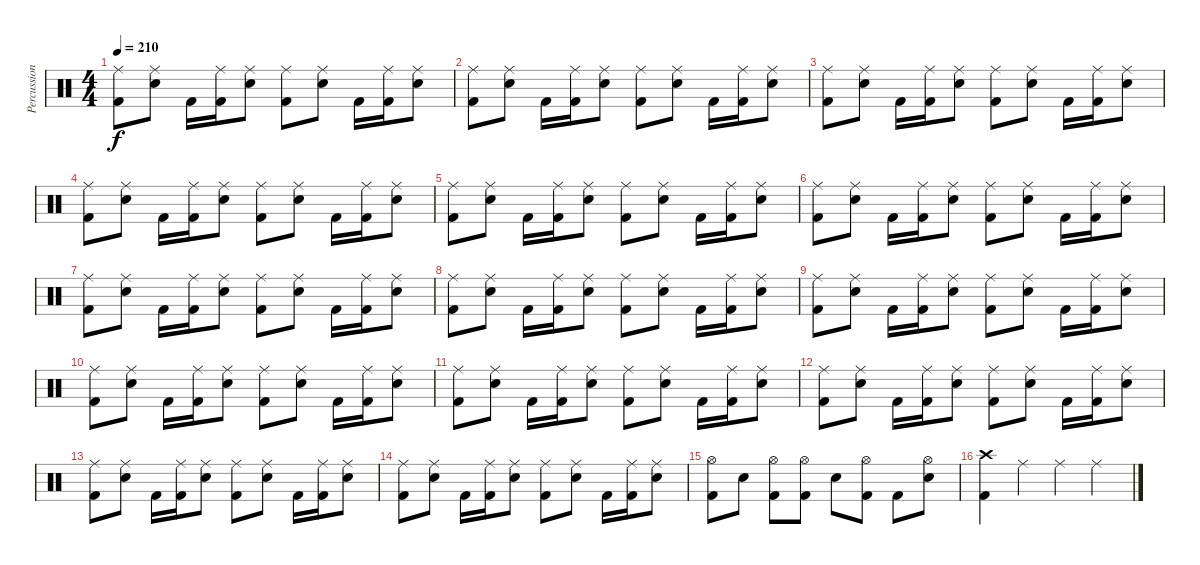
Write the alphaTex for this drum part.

\track ("Percussions" "Percussion") {instrument percussion}
\staff {score}
\articulation defaults
\ts (4 4)
\tempo 210
\clef neutral
\ks c
("Ride (middle)" "Kick (hit) 2").8{dy f} ("Ride (middle)" "Snare (hit) 2").8 "Kick (hit) 2".16 ("Ride (middle)" "Kick (hit) 2").16 ("Ride (middle)" "Snare (hit) 2").8 ("Ride (middle)" "Kick (hit) 2").8 ("Ride (middle)" "Snare (hit) 2").8 "Kick (hit) 2".16 ("Ride (middle)" "Kick (hit) 2").16 ("Ride (middle)" "Snare (hit) 2").8 |
("Ride (middle)" "Kick (hit) 2").8 ("Ride (middle)" "Snare (hit) 2").8 "Kick (hit) 2".16 ("Ride (middle)" "Kick (hit) 2").16 ("Ride (middle)" "Snare (hit) 2").8 ("Ride (middle)" "Kick (hit) 2").8 ("Ride (middle)" "Snare (hit) 2").8 "Kick (hit) 2".16 ("Ride (middle)" "Kick (hit) 2").16 ("Ride (middle)" "Snare (hit) 2").8 |
("Ride (middle)" "Kick (hit) 2").8 ("Ride (middle)" "Snare (hit) 2").8 "Kick (hit) 2".16 ("Ride (middle)" "Kick (hit) 2").16 ("Ride (middle)" "Snare (hit) 2").8 ("Ride (middle)" "Kick (hit) 2").8 ("Ride (middle)" "Snare (hit) 2").8 "Kick (hit) 2".16 ("Ride (middle)" "Kick (hit) 2").16 ("Ride (middle)" "Snare (hit) 2").8 |
("Ride (middle)" "Kick (hit) 2").8 ("Ride (middle)" "Snare (hit) 2").8 "Kick (hit) 2".16 ("Ride (middle)" "Kick (hit) 2").16 ("Ride (middle)" "Snare (hit) 2").8 ("Ride (middle)" "Kick (hit) 2").8 ("Ride (middle)" "Snare (hit) 2").8 "Kick (hit) 2".16 ("Ride (middle)" "Kick (hit) 2").16 ("Ride (middle)" "Snare (hit) 2").8 |
("Ride (middle)" "Kick (hit) 2").8 ("Ride (middle)" "Snare (hit) 2").8 "Kick (hit) 2".16 ("Ride (middle)" "Kick (hit) 2").16 ("Ride (middle)" "Snare (hit) 2").8 ("Ride (middle)" "Kick (hit) 2").8 ("Ride (middle)" "Snare (hit) 2").8 "Kick (hit) 2".16 ("Ride (middle)" "Kick (hit) 2").16 ("Ride (middle)" "Snare (hit) 2").8 |
("Ride (middle)" "Kick (hit) 2").8 ("Ride (middle)" "Snare (hit) 2").8 "Kick (hit) 2".16 ("Ride (middle)" "Kick (hit) 2").16 ("Ride (middle)" "Snare (hit) 2").8 ("Ride (middle)" "Kick (hit) 2").8 ("Ride (middle)" "Snare (hit) 2").8 "Kick (hit) 2".16 ("Ride (middle)" "Kick (hit) 2").16 ("Ride (middle)" "Snare (hit) 2").8 |
("Ride (middle)" "Kick (hit) 2").8 ("Ride (middle)" "Snare (hit) 2").8 "Kick (hit) 2".16 ("Ride (middle)" "Kick (hit) 2").16 ("Ride (middle)" "Snare (hit) 2").8 ("Ride (middle)" "Kick (hit) 2").8 ("Ride (middle)" "Snare (hit) 2").8 "Kick (hit) 2".16 ("Ride (middle)" "Kick (hit) 2").16 ("Ride (middle)" "Snare (hit) 2").8 |
("Ride (middle)" "Kick (hit) 2").8 ("Ride (middle)" "Snare (hit) 2").8 "Kick (hit) 2".16 ("Ride (middle)" "Kick (hit) 2").16 ("Ride (middle)" "Snare (hit) 2").8 ("Ride (middle)" "Kick (hit) 2").8 ("Ride (middle)" "Snare (hit) 2").8 "Kick (hit) 2".16 ("Ride (middle)" "Kick (hit) 2").16 ("Ride (middle)" "Snare (hit) 2").8 |
("Ride (middle)" "Kick (hit) 2").8 ("Ride (middle)" "Snare (hit) 2").8 "Kick (hit) 2".16 ("Ride (middle)" "Kick (hit) 2").16 ("Ride (middle)" "Snare (hit) 2").8 ("Ride (middle)" "Kick (hit) 2").8 ("Ride (middle)" "Snare (hit) 2").8 "Kick (hit) 2".16 ("Ride (middle)" "Kick (hit) 2").16 ("Ride (middle)" "Snare (hit) 2").8 |
("Ride (middle)" "Kick (hit) 2").8 ("Ride (middle)" "Snare (hit) 2").8 "Kick (hit) 2".16 ("Ride (middle)" "Kick (hit) 2").16 ("Ride (middle)" "Snare (hit) 2").8 ("Ride (middle)" "Kick (hit) 2").8 ("Ride (middle)" "Snare (hit) 2").8 "Kick (hit) 2".16 ("Ride (middle)" "Kick (hit) 2").16 ("Ride (middle)" "Snare (hit) 2").8 |
("Ride (middle)" "Kick (hit) 2").8 ("Ride (middle)" "Snare (hit) 2").8 "Kick (hit) 2".16 ("Ride (middle)" "Kick (hit) 2").16 ("Ride (middle)" "Snare (hit) 2").8 ("Ride (middle)" "Kick (hit) 2").8 ("Ride (middle)" "Snare (hit) 2").8 "Kick (hit) 2".16 ("Ride (middle)" "Kick (hit) 2").16 ("Ride (middle)" "Snare (hit) 2").8 |
("Ride (middle)" "Kick (hit) 2").8 ("Ride (middle)" "Snare (hit) 2").8 "Kick (hit) 2".16 ("Ride (middle)" "Kick (hit) 2").16 ("Ride (middle)" "Snare (hit) 2").8 ("Ride (middle)" "Kick (hit) 2").8 ("Ride (middle)" "Snare (hit) 2").8 "Kick (hit) 2".16 ("Ride (middle)" "Kick (hit) 2").16 ("Ride (middle)" "Snare (hit) 2").8 |
("Ride (middle)" "Kick (hit) 2").8 ("Ride (middle)" "Snare (hit) 2").8 "Kick (hit) 2".16 ("Ride (middle)" "Kick (hit) 2").16 ("Ride (middle)" "Snare (hit) 2").8 ("Ride (middle)" "Kick (hit) 2").8 ("Ride (middle)" "Snare (hit) 2").8 "Kick (hit) 2".16 ("Ride (middle)" "Kick (hit) 2").16 ("Ride (middle)" "Snare (hit) 2").8 |
("Ride (middle)" "Kick (hit) 2").8 ("Ride (middle)" "Snare (hit) 2").8 "Kick (hit) 2".16 ("Ride (middle)" "Kick (hit) 2").16 ("Ride (middle)" "Snare (hit) 2").8 ("Ride (middle)" "Kick (hit) 2").8 ("Ride (middle)" "Snare (hit) 2").8 "Kick (hit) 2".16 ("Ride (middle)" "Kick (hit) 2").16 ("Ride (middle)" "Snare (hit) 2").8 |
("Hi-Hat (open)" "Kick (hit) 2").8 "Snare (hit) 2".8 ("Hi-Hat (open)" "Kick (hit) 2").8 ("Hi-Hat (open)" "Kick (hit) 2").8 "Snare (hit) 2".8 ("Hi-Hat (open)" "Kick (hit) 2").8 "Kick (hit) 2".8 ("Hi-Hat (open)" "Snare (hit) 2").8 |
("Crash high (hit)" "Kick (hit) 2").4 "Ride (middle)".4 "Ride (middle)".4 "Ride (middle)".4
